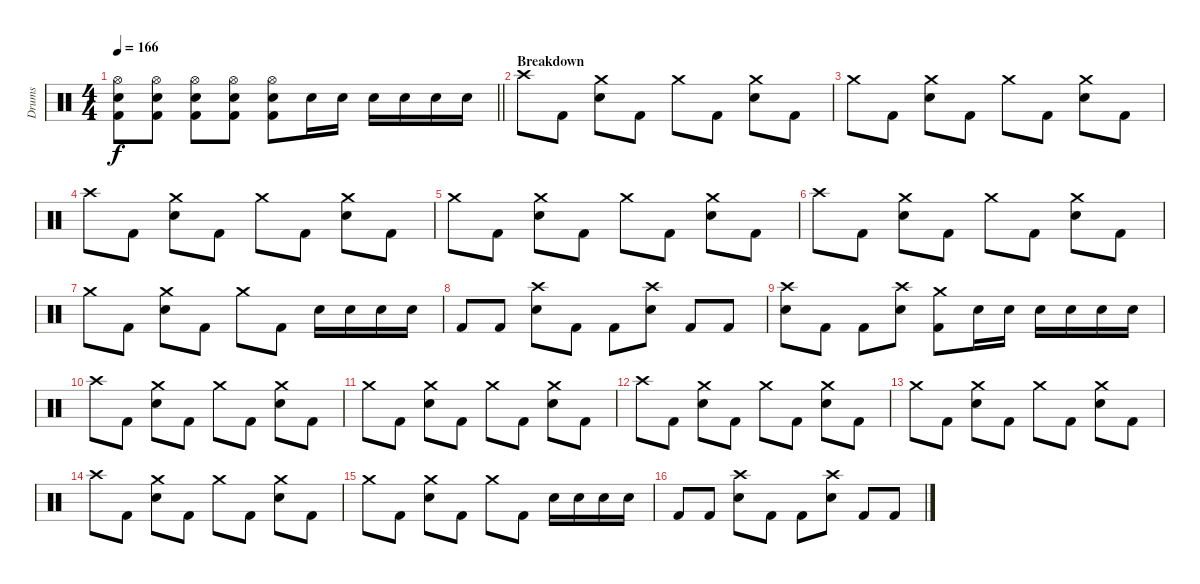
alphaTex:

\track ("Drums" "Drums") {instrument percussion}
\staff {score}
\articulation defaults
\ts (4 4)
\tempo 166
\clef neutral
\barLineRight lightlight
\ks c
("Hi-Hat (open)" "Electric Snare (hit)" "Kick (hit) 2").8{dy f} ("Hi-Hat (open)" "Electric Snare (hit)" "Kick (hit) 2").8 ("Hi-Hat (open)" "Electric Snare (hit)" "Kick (hit) 2").8 ("Hi-Hat (open)" "Electric Snare (hit)" "Kick (hit) 2").8 ("Hi-Hat (open)" "Electric Snare (hit)" "Kick (hit) 2").8 "Electric Snare (hit)".16 "Electric Snare (hit)".16 "Electric Snare (hit)".16 "Electric Snare (hit)".16 "Electric Snare (hit)".16 "Electric Snare (hit)".16 |
\section ("" "Breakdown")
"Crash high (hit)".8 "Kick (hit) 2".8 ("Crash medium (hit)" "Electric Snare (hit)").8 "Kick (hit) 2".8 "Crash medium (hit)".8 "Kick (hit) 2".8 ("Crash medium (hit)" "Electric Snare (hit)").8 "Kick (hit) 2".8 |
"Crash medium (hit)".8 "Kick (hit) 2".8 ("Crash medium (hit)" "Electric Snare (hit)").8 "Kick (hit) 2".8 "Crash medium (hit)".8 "Kick (hit) 2".8 ("Crash medium (hit)" "Electric Snare (hit)").8 "Kick (hit) 2".8 |
"Crash high (hit)".8 "Kick (hit) 2".8 ("Crash medium (hit)" "Electric Snare (hit)").8 "Kick (hit) 2".8 "Crash medium (hit)".8 "Kick (hit) 2".8 ("Crash medium (hit)" "Electric Snare (hit)").8 "Kick (hit) 2".8 |
"Crash medium (hit)".8 "Kick (hit) 2".8 ("Crash medium (hit)" "Electric Snare (hit)").8 "Kick (hit) 2".8 "Crash medium (hit)".8 "Kick (hit) 2".8 ("Crash medium (hit)" "Electric Snare (hit)").8 "Kick (hit) 2".8 |
"Crash high (hit)".8 "Kick (hit) 2".8 ("Crash medium (hit)" "Electric Snare (hit)").8 "Kick (hit) 2".8 "Crash medium (hit)".8 "Kick (hit) 2".8 ("Crash medium (hit)" "Electric Snare (hit)").8 "Kick (hit) 2".8 |
"Crash medium (hit)".8 "Kick (hit) 2".8 ("Crash medium (hit)" "Electric Snare (hit)").8 "Kick (hit) 2".8 "Crash medium (hit)".8 "Kick (hit) 2".8 "Electric Snare (hit)".16 "Electric Snare (hit)".16 "Electric Snare (hit)".16 "Electric Snare (hit)".16 |
"Kick (hit) 2".8 "Kick (hit) 2".8 ("Crash high (hit)" "Electric Snare (hit)").8 "Kick (hit) 2".8 "Kick (hit) 2".8 ("Crash high (hit)" "Electric Snare (hit)").8 "Kick (hit) 2".8 "Kick (hit) 2".8 |
("Crash high (hit)" "Electric Snare (hit)").8 "Kick (hit) 2".8 "Kick (hit) 2".8 ("Crash high (hit)" "Electric Snare (hit)").8 ("Crash medium (hit)" "Kick (hit) 2").8 "Electric Snare (hit)".16 "Electric Snare (hit)".16 "Electric Snare (hit)".16 "Electric Snare (hit)".16 "Electric Snare (hit)".16 "Electric Snare (hit)".16 |
"Crash high (hit)".8 "Kick (hit) 2".8 ("Crash medium (hit)" "Electric Snare (hit)").8 "Kick (hit) 2".8 "Crash medium (hit)".8 "Kick (hit) 2".8 ("Crash medium (hit)" "Electric Snare (hit)").8 "Kick (hit) 2".8 |
"Crash medium (hit)".8 "Kick (hit) 2".8 ("Crash medium (hit)" "Electric Snare (hit)").8 "Kick (hit) 2".8 "Crash medium (hit)".8 "Kick (hit) 2".8 ("Crash medium (hit)" "Electric Snare (hit)").8 "Kick (hit) 2".8 |
"Crash high (hit)".8 "Kick (hit) 2".8 ("Crash medium (hit)" "Electric Snare (hit)").8 "Kick (hit) 2".8 "Crash medium (hit)".8 "Kick (hit) 2".8 ("Crash medium (hit)" "Electric Snare (hit)").8 "Kick (hit) 2".8 |
"Crash medium (hit)".8 "Kick (hit) 2".8 ("Crash medium (hit)" "Electric Snare (hit)").8 "Kick (hit) 2".8 "Crash medium (hit)".8 "Kick (hit) 2".8 ("Crash medium (hit)" "Electric Snare (hit)").8 "Kick (hit) 2".8 |
"Crash high (hit)".8 "Kick (hit) 2".8 ("Crash medium (hit)" "Electric Snare (hit)").8 "Kick (hit) 2".8 "Crash medium (hit)".8 "Kick (hit) 2".8 ("Crash medium (hit)" "Electric Snare (hit)").8 "Kick (hit) 2".8 |
"Crash medium (hit)".8 "Kick (hit) 2".8 ("Crash medium (hit)" "Electric Snare (hit)").8 "Kick (hit) 2".8 "Crash medium (hit)".8 "Kick (hit) 2".8 "Electric Snare (hit)".16 "Electric Snare (hit)".16 "Electric Snare (hit)".16 "Electric Snare (hit)".16 |
"Kick (hit) 2".8 "Kick (hit) 2".8 ("Crash high (hit)" "Electric Snare (hit)").8 "Kick (hit) 2".8 "Kick (hit) 2".8 ("Crash high (hit)" "Electric Snare (hit)").8 "Kick (hit) 2".8 "Kick (hit) 2".8
